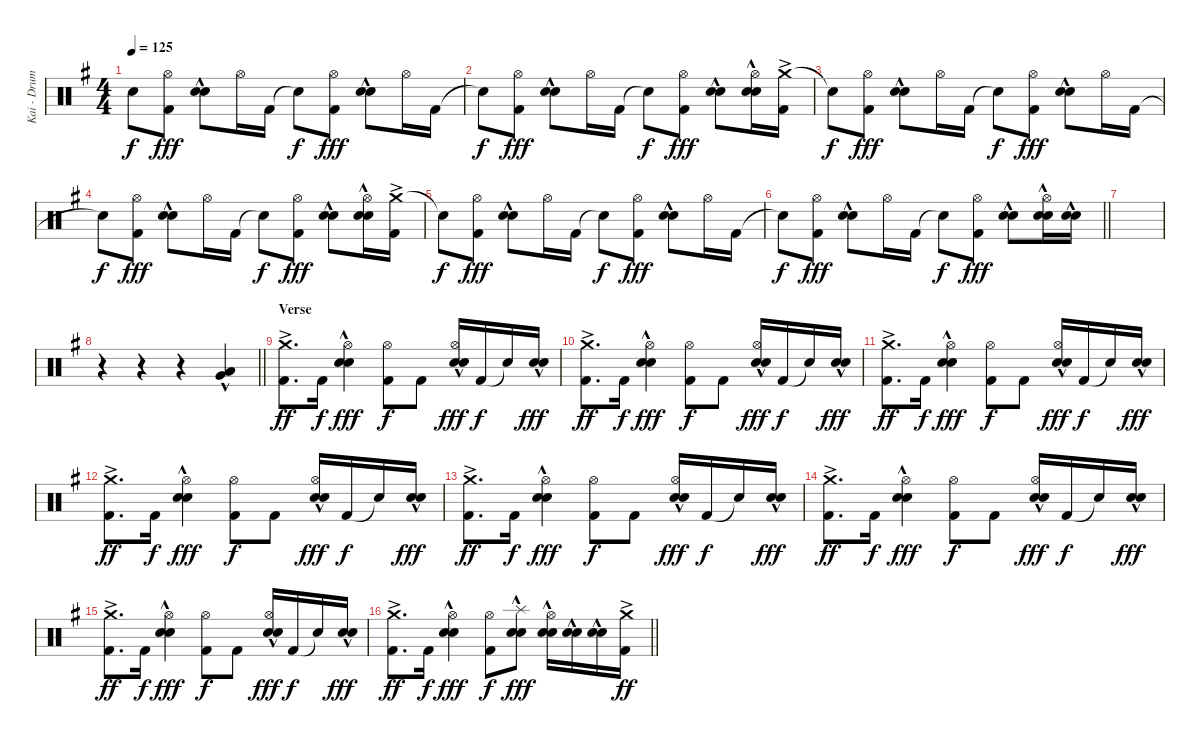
\track ("Kai - Drums" "Kai - Drum") {instrument percussion}
\staff {score}
\articulation defaults
\ts (4 4)
\tempo 125
\clef neutral
\ks eminor "Snare (hit)"{t}.8{dy f}
("Hi-Hat (open)" "Kick (hit) 2").8{dy fff} ("Electric Snare (hit)"{hac} "Snare (hit) 2"{hac}).8 "Hi-Hat (open)".16 "Kick (hit) 2".16 "Snare (hit)"{t}.8{dy f} ("Hi-Hat (open)" "Kick (hit) 2").8{dy fff} ("Electric Snare (hit)"{hac} "Snare (hit) 2"{hac}).8 "Hi-Hat (open)".16 "Kick (hit) 2".16 |
"Snare (hit)"{t}.8{dy f} ("Hi-Hat (open)" "Kick (hit) 2").8{dy fff} ("Electric Snare (hit)"{hac} "Snare (hit) 2"{hac}).8 "Hi-Hat (open)".16 "Kick (hit) 2".16 "Snare (hit)"{t}.8{dy f} ("Hi-Hat (open)" "Kick (hit) 2").8{dy fff} ("Electric Snare (hit)"{hac} "Snare (hit) 2"{hac}).8 ("Hi-Hat (open)" "Electric Snare (hit)"{hac} "Snare (hit) 2"{hac}).16 ("Crash medium (hit)"{ac} "Kick (hit) 2").16 |
"Snare (hit)"{t}.8{dy f} ("Hi-Hat (open)" "Kick (hit) 2").8{dy fff} ("Electric Snare (hit)"{hac} "Snare (hit) 2"{hac}).8 "Hi-Hat (open)".16 "Kick (hit) 2".16 "Snare (hit)"{t}.8{dy f} ("Hi-Hat (open)" "Kick (hit) 2").8{dy fff} ("Electric Snare (hit)"{hac} "Snare (hit) 2"{hac}).8 "Hi-Hat (open)".16 "Kick (hit) 2".16 |
"Snare (hit)"{t}.8{dy f} ("Hi-Hat (open)" "Kick (hit) 2").8{dy fff} ("Electric Snare (hit)"{hac} "Snare (hit) 2"{hac}).8 "Hi-Hat (open)".16 "Kick (hit) 2".16 "Snare (hit)"{t}.8{dy f} ("Hi-Hat (open)" "Kick (hit) 2").8{dy fff} ("Electric Snare (hit)"{hac} "Snare (hit) 2"{hac}).8 ("Hi-Hat (open)" "Electric Snare (hit)"{hac} "Snare (hit) 2"{hac}).16 ("Crash medium (hit)"{ac} "Kick (hit) 2").16 |
"Snare (hit)"{t}.8{dy f} ("Hi-Hat (open)" "Kick (hit) 2").8{dy fff} ("Electric Snare (hit)"{hac} "Snare (hit) 2"{hac}).8 "Hi-Hat (open)".16 "Kick (hit) 2".16 "Snare (hit)"{t}.8{dy f} ("Hi-Hat (open)" "Kick (hit) 2").8{dy fff} ("Electric Snare (hit)"{hac} "Snare (hit) 2"{hac}).8 "Hi-Hat (open)".16 "Kick (hit) 2".16 |
\barLineRight lightlight "Snare (hit)"{t}.8{dy f}
("Hi-Hat (open)" "Kick (hit) 2").8{dy fff} ("Electric Snare (hit)"{hac} "Snare (hit) 2"{hac}).8 "Hi-Hat (open)".16 "Kick (hit) 2".16 "Snare (hit)"{t}.8{dy f} ("Hi-Hat (open)" "Kick (hit) 2").8{dy fff} ("Electric Snare (hit)"{hac} "Snare (hit) 2"{hac}).8 ("Hi-Hat (open)" "Electric Snare (hit)"{hac} "Snare (hit) 2"{hac}).16 ("Electric Snare (hit)"{hac} "Snare (hit) 2"{hac}).16 |
|
\barLineRight lightlight
r.4 r.4 r.4 ("Low Tom (hit)"{hac} "Very Low Tom (hit)"{hac}).4 |
\section ("" "Verse")
("Crash medium (hit)"{ac} "Kick (hit) 2").8{d dy ff} "Kick (hit) 2".16{dy f} ("Hi-Hat (open)" "Electric Snare (hit)"{hac} "Snare (hit) 2"{hac}).4{dy fff} ("Hi-Hat (open)" "Kick (hit) 2").8{dy f} "Kick (hit) 2".8 ("Hi-Hat (open)" "Electric Snare (hit)"{hac} "Snare (hit) 2"{hac}).16{dy fff} "Kick (hit) 2".16{dy f} "Snare (hit)"{t}.16 ("Electric Snare (hit)"{hac} "Snare (hit) 2"{hac}).16{dy fff} |
("Crash medium (hit)"{ac} "Kick (hit) 2").8{d dy ff} "Kick (hit) 2".16{dy f} ("Hi-Hat (open)" "Electric Snare (hit)"{hac} "Snare (hit) 2"{hac}).4{dy fff} ("Hi-Hat (open)" "Kick (hit) 2").8{dy f} "Kick (hit) 2".8 ("Hi-Hat (open)" "Electric Snare (hit)"{hac} "Snare (hit) 2"{hac}).16{dy fff} "Kick (hit) 2".16{dy f} "Snare (hit)"{t}.16 ("Electric Snare (hit)"{hac} "Snare (hit) 2"{hac}).16{dy fff} |
("Crash medium (hit)"{ac} "Kick (hit) 2").8{d dy ff} "Kick (hit) 2".16{dy f} ("Hi-Hat (open)" "Electric Snare (hit)"{hac} "Snare (hit) 2"{hac}).4{dy fff} ("Hi-Hat (open)" "Kick (hit) 2").8{dy f} "Kick (hit) 2".8 ("Hi-Hat (open)" "Electric Snare (hit)"{hac} "Snare (hit) 2"{hac}).16{dy fff} "Kick (hit) 2".16{dy f} "Snare (hit)"{t}.16 ("Electric Snare (hit)"{hac} "Snare (hit) 2"{hac}).16{dy fff} |
("Crash medium (hit)"{ac} "Kick (hit) 2").8{d dy ff} "Kick (hit) 2".16{dy f} ("Hi-Hat (open)" "Electric Snare (hit)"{hac} "Snare (hit) 2"{hac}).4{dy fff} ("Hi-Hat (open)" "Kick (hit) 2").8{dy f} "Kick (hit) 2".8 ("Hi-Hat (open)" "Electric Snare (hit)"{hac} "Snare (hit) 2"{hac}).16{dy fff} "Kick (hit) 2".16{dy f} "Snare (hit)"{t}.16 ("Electric Snare (hit)"{hac} "Snare (hit) 2"{hac}).16{dy fff} |
("Crash medium (hit)"{ac} "Kick (hit) 2").8{d dy ff} "Kick (hit) 2".16{dy f} ("Hi-Hat (open)" "Electric Snare (hit)"{hac} "Snare (hit) 2"{hac}).4{dy fff} ("Hi-Hat (open)" "Kick (hit) 2").8{dy f} "Kick (hit) 2".8 ("Hi-Hat (open)" "Electric Snare (hit)"{hac} "Snare (hit) 2"{hac}).16{dy fff} "Kick (hit) 2".16{dy f} "Snare (hit)"{t}.16 ("Electric Snare (hit)"{hac} "Snare (hit) 2"{hac}).16{dy fff} |
("Crash medium (hit)"{ac} "Kick (hit) 2").8{d dy ff} "Kick (hit) 2".16{dy f} ("Hi-Hat (open)" "Electric Snare (hit)"{hac} "Snare (hit) 2"{hac}).4{dy fff} ("Hi-Hat (open)" "Kick (hit) 2").8{dy f} "Kick (hit) 2".8 ("Hi-Hat (open)" "Electric Snare (hit)"{hac} "Snare (hit) 2"{hac}).16{dy fff} "Kick (hit) 2".16{dy f} "Snare (hit)"{t}.16 ("Electric Snare (hit)"{hac} "Snare (hit) 2"{hac}).16{dy fff} |
("Crash medium (hit)"{ac} "Kick (hit) 2").8{d dy ff} "Kick (hit) 2".16{dy f} ("Hi-Hat (open)" "Electric Snare (hit)"{hac} "Snare (hit) 2"{hac}).4{dy fff} ("Hi-Hat (open)" "Kick (hit) 2").8{dy f} "Kick (hit) 2".8 ("Hi-Hat (open)" "Electric Snare (hit)"{hac} "Snare (hit) 2"{hac}).16{dy fff} "Kick (hit) 2".16{dy f} "Snare (hit)"{t}.16 ("Electric Snare (hit)"{hac} "Snare (hit) 2"{hac}).16{dy fff} |
\barLineRight lightlight
("Crash medium (hit)"{ac} "Kick (hit) 2").8{d dy ff} "Kick (hit) 2".16{dy f} ("Hi-Hat (open)" "Electric Snare (hit)"{hac} "Snare (hit) 2"{hac}).4{dy fff} ("Hi-Hat (open)" "Kick (hit) 2").8{dy f} ("Splash (hit)"{hac} "Electric Snare (hit)"{hac} "Snare (hit) 2"{hac}).8{dy fff} ("Hi-Hat (open)" "Electric Snare (hit)"{hac} "Snare (hit) 2"{hac}).16 ("Electric Snare (hit)"{hac} "Snare (hit) 2"{hac}).16 ("Electric Snare (hit)"{hac} "Snare (hit) 2"{hac}).16 ("Crash medium (hit)"{ac} "Kick (hit) 2").16{dy ff}
